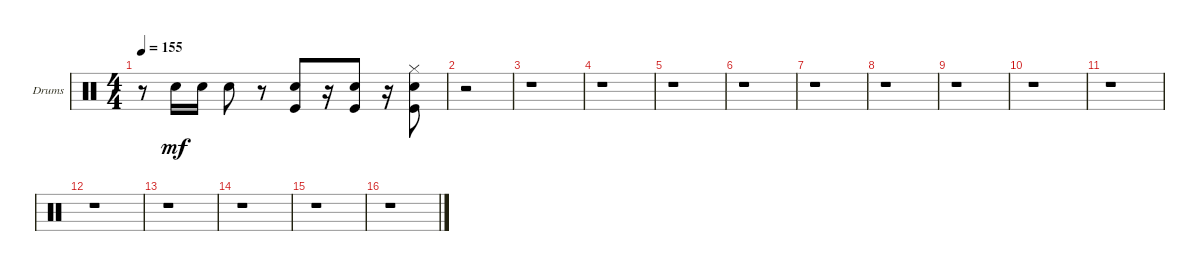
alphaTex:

\defaultSystemsLayout 4
\bracketExtendMode groupsimilarinstruments
\firstSystemTrackNameOrientation horizontal
\otherSystemsTrackNameOrientation horizontal
\track ("Drumkit" "Drums") {instrument percussion}
\staff {score}
\articulation defaults
\ts (4 4)
\tempo 155
\clef neutral
\ks c
r.8{dy mf} "Snare (hit) 2".16 "Snare (hit) 2".16 "Snare (hit) 2".8 r.8 ("Kick (hit)" "Snare (hit) 2").8 r.16 ("Kick (hit)" "Snare (hit) 2").8 r.16 ("Kick (hit)" "Snare (hit) 2" "Hi-Hat (closed)").8 |
r.2 |
r.1 |
r.1 |
r.1 |
r.1 |
r.1 |
r.1 |
r.1 |
r.1 |
r.1 |
r.1 |
r.1 |
r.1 |
r.1 |
r.1
